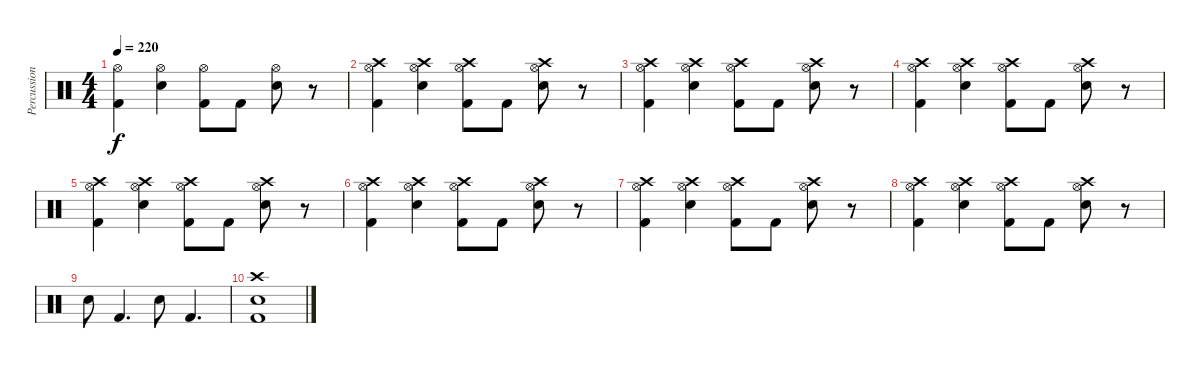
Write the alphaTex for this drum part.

\track ("Percussions" "Percussion") {instrument percussion}
\staff {score}
\articulation defaults
\ts (4 4)
\tempo 220
\clef neutral
\ks c
("Hi-Hat (open)" "Kick (hit) 2").4{dy f} ("Hi-Hat (open)" "Electric Snare (hit)").4 ("Hi-Hat (open)" "Kick (hit) 2").8 "Kick (hit) 2".8 ("Hi-Hat (open)" "Electric Snare (hit)").8 r.8 |
("Crash high (hit)" "Hi-Hat (open)" "Kick (hit) 2").4 ("Crash high (hit)" "Hi-Hat (open)" "Electric Snare (hit)").4 ("Crash high (hit)" "Hi-Hat (open)" "Kick (hit) 2").8 "Kick (hit) 2".8 ("Crash high (hit)" "Hi-Hat (open)" "Electric Snare (hit)").8 r.8 |
("Crash high (hit)" "Hi-Hat (open)" "Kick (hit) 2").4 ("Crash high (hit)" "Hi-Hat (open)" "Electric Snare (hit)").4 ("Crash high (hit)" "Hi-Hat (open)" "Kick (hit) 2").8 "Kick (hit) 2".8 ("Crash high (hit)" "Hi-Hat (open)" "Electric Snare (hit)").8 r.8 |
("Crash high (hit)" "Hi-Hat (open)" "Kick (hit) 2").4 ("Crash high (hit)" "Hi-Hat (open)" "Electric Snare (hit)").4 ("Crash high (hit)" "Hi-Hat (open)" "Kick (hit) 2").8 "Kick (hit) 2".8 ("Crash high (hit)" "Hi-Hat (open)" "Electric Snare (hit)").8 r.8 |
("Crash high (hit)" "Hi-Hat (open)" "Kick (hit) 2").4 ("Crash high (hit)" "Hi-Hat (open)" "Electric Snare (hit)").4 ("Crash high (hit)" "Hi-Hat (open)" "Kick (hit) 2").8 "Kick (hit) 2".8 ("Crash high (hit)" "Hi-Hat (open)" "Electric Snare (hit)").8 r.8 |
("Crash high (hit)" "Hi-Hat (open)" "Kick (hit) 2").4 ("Crash high (hit)" "Hi-Hat (open)" "Electric Snare (hit)").4 ("Crash high (hit)" "Hi-Hat (open)" "Kick (hit) 2").8 "Kick (hit) 2".8 ("Crash high (hit)" "Hi-Hat (open)" "Electric Snare (hit)").8 r.8 |
("Crash high (hit)" "Hi-Hat (open)" "Kick (hit) 2").4 ("Crash high (hit)" "Hi-Hat (open)" "Electric Snare (hit)").4 ("Crash high (hit)" "Hi-Hat (open)" "Kick (hit) 2").8 "Kick (hit) 2".8 ("Crash high (hit)" "Hi-Hat (open)" "Electric Snare (hit)").8 r.8 |
("Crash high (hit)" "Hi-Hat (open)" "Kick (hit) 2").4 ("Crash high (hit)" "Hi-Hat (open)" "Electric Snare (hit)").4 ("Crash high (hit)" "Hi-Hat (open)" "Kick (hit) 2").8 "Kick (hit) 2".8 ("Crash high (hit)" "Hi-Hat (open)" "Electric Snare (hit)").8 r.8 |
"Electric Snare (hit)".8 "Kick (hit) 2".4{d} "Electric Snare (hit)".8 "Kick (hit) 2".4{d} |
("Crash high (hit)" "Electric Snare (hit)" "Kick (hit) 2").1
